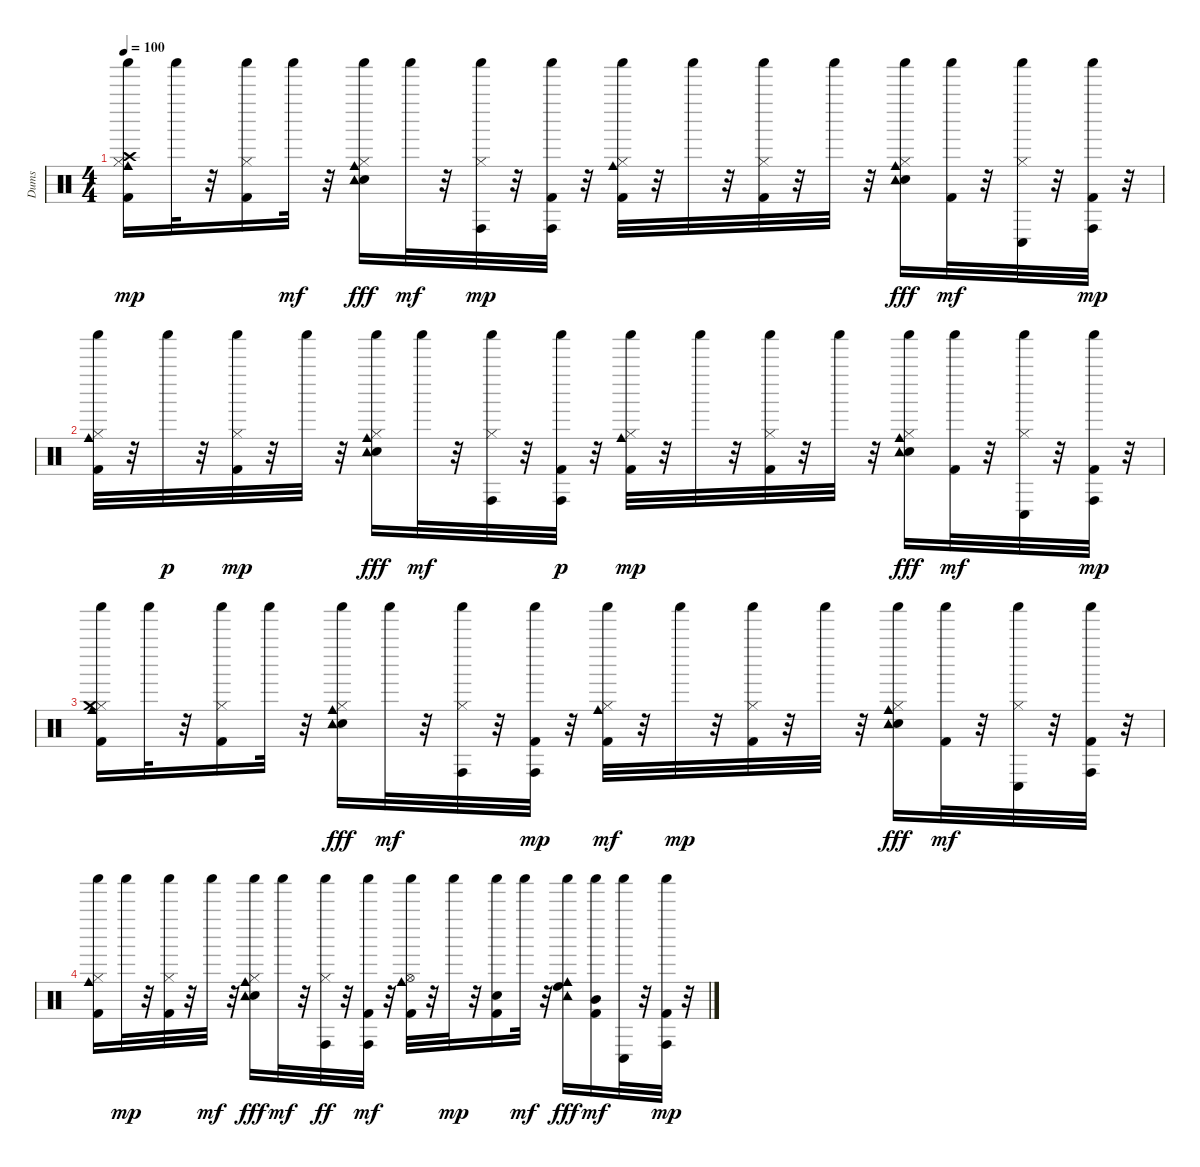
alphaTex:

\track ("Dums" "Dums") {instrument percussion}
\staff {score}
\articulation defaults
\ts (4 4)
\tempo 100
\clef neutral
\ks c
("Kick (hit) 2" "Hi-Hat (closed)" "Cowbell medium (hit)" "Crash high (hit)" "Shaker (hit)").16{dy mp} "Shaker (hit)".32 r.32 ("Kick (hit) 2" "Hi-Hat (closed)" "Shaker (hit)").16 "Shaker (hit)".32{dy mf} r.32 ("Electric Snare (hit)" "Hi-Hat (closed)" "Cowbell medium (hit)" "Shaker (hit)" "Tambourine (hit)").16{dy fff} "Shaker (hit)".32{dy mf} r.32 ("Hi-Hat (closed)" "Conga high (hit)" "Shaker (hit)").32{dy mp} r.32 ("Kick (hit) 2" "Conga high (hit)" "Shaker (hit)").32 r.32 ("Kick (hit) 2" "Hi-Hat (closed)" "Cowbell medium (hit)" "Shaker (hit)").32 r.32 "Shaker (hit)".32 r.32 ("Kick (hit) 2" "Hi-Hat (closed)" "Shaker (hit)").32 r.32 "Shaker (hit)".32 r.32 ("Electric Snare (hit)" "Hi-Hat (closed)" "Cowbell medium (hit)" "Shaker (hit)" "Tambourine (hit)").16{dy fff} ("Kick (hit) 2" "Shaker (hit)").32{dy mf} r.32 ("Hi-Hat (closed)" "Conga low (hit)" "Shaker (hit)").32 r.32 ("Kick (hit) 2" "Conga high (hit)" "Shaker (hit)").32{dy mp} r.32 |
("Kick (hit) 2" "Hi-Hat (closed)" "Cowbell medium (hit)" "Shaker (hit)").32 r.32 "Shaker (hit)".32{dy p} r.32 ("Kick (hit) 2" "Hi-Hat (closed)" "Shaker (hit)").32{dy mp} r.32 "Shaker (hit)".32 r.32 ("Electric Snare (hit)" "Hi-Hat (closed)" "Cowbell medium (hit)" "Shaker (hit)" "Tambourine (hit)").16{dy fff} "Shaker (hit)".32{dy mf} r.32 ("Hi-Hat (closed)" "Conga high (hit)" "Shaker (hit)").32 r.32 ("Kick (hit) 2" "Conga high (hit)" "Shaker (hit)").32{dy p} r.32 ("Kick (hit) 2" "Hi-Hat (closed)" "Cowbell medium (hit)" "Shaker (hit)").32{dy mp} r.32 "Shaker (hit)".32 r.32 ("Kick (hit) 2" "Hi-Hat (closed)" "Shaker (hit)").32 r.32 "Shaker (hit)".32 r.32 ("Electric Snare (hit)" "Hi-Hat (closed)" "Cowbell medium (hit)" "Shaker (hit)" "Tambourine (hit)").16{dy fff} ("Kick (hit) 2" "Shaker (hit)").32{dy mf} r.32 ("Hi-Hat (closed)" "Conga low (hit)" "Shaker (hit)").32 r.32 ("Kick (hit) 2" "Conga high (hit)" "Shaker (hit)").32{dy mp} r.32 |
("Kick (hit) 2" "Hi-Hat (closed)" "Cowbell medium (hit)" "Crash medium (hit)" "Shaker (hit)").16 "Shaker (hit)".32 r.32 ("Kick (hit) 2" "Hi-Hat (closed)" "Shaker (hit)").16 "Shaker (hit)".32 r.32 ("Electric Snare (hit)" "Hi-Hat (closed)" "Cowbell medium (hit)" "Shaker (hit)" "Tambourine (hit)").16{dy fff} "Shaker (hit)".32{dy mf} r.32 ("Hi-Hat (closed)" "Conga high (hit)" "Shaker (hit)").32 r.32 ("Kick (hit) 2" "Conga high (hit)" "Shaker (hit)").32{dy mp} r.32 ("Kick (hit) 2" "Hi-Hat (closed)" "Cowbell medium (hit)" "Shaker (hit)").32{dy mf} r.32 "Shaker (hit)".32{dy mp} r.32 ("Kick (hit) 2" "Hi-Hat (closed)" "Shaker (hit)").32 r.32 "Shaker (hit)".32 r.32 ("Electric Snare (hit)" "Hi-Hat (closed)" "Cowbell medium (hit)" "Shaker (hit)" "Tambourine (hit)").16{dy fff} ("Kick (hit) 2" "Shaker (hit)").32{dy mf} r.32 ("Hi-Hat (closed)" "Conga low (hit)" "Shaker (hit)").32 r.32 ("Kick (hit) 2" "Conga high (hit)" "Shaker (hit)").32 r.32 |
("Kick (hit) 2" "Hi-Hat (closed)" "Cowbell medium (hit)" "Shaker (hit)").16 "Shaker (hit)".32{dy mp} r.32 ("Kick (hit) 2" "Hi-Hat (closed)" "Shaker (hit)").32 r.32 "Shaker (hit)".32{dy mf} r.32 ("Electric Snare (hit)" "Hi-Hat (closed)" "Cowbell medium (hit)" "Shaker (hit)" "Tambourine (hit)").16{dy fff} "Shaker (hit)".32{dy mf} r.32 ("Hi-Hat (closed)" "Conga high (hit)" "Shaker (hit)").32{dy ff} r.32 ("Kick (hit) 2" "Conga high (hit)" "Shaker (hit)").32{dy mf} r.32 ("Kick (hit) 2" "Hi-Hat (open)" "Cowbell medium (hit)" "Shaker (hit)").32 r.32 "Shaker (hit)".32{dy mp} r.32 ("Kick (hit) 2" "Electric Snare (hit)" "Shaker (hit)").16 "Shaker (hit)".32{dy mf} r.32 ("High Floor Tom (hit)" "Cowbell medium (hit)" "Shaker (hit)" "Tambourine (hit)").16{dy fff} ("Kick (hit) 2" "Mid Tom (hit)" "Shaker (hit)").16{dy mf} ("Conga low (hit)" "Shaker (hit)").32 r.32 ("Kick (hit) 2" "Conga high (hit)" "Shaker (hit)").32{dy mp} r.32
